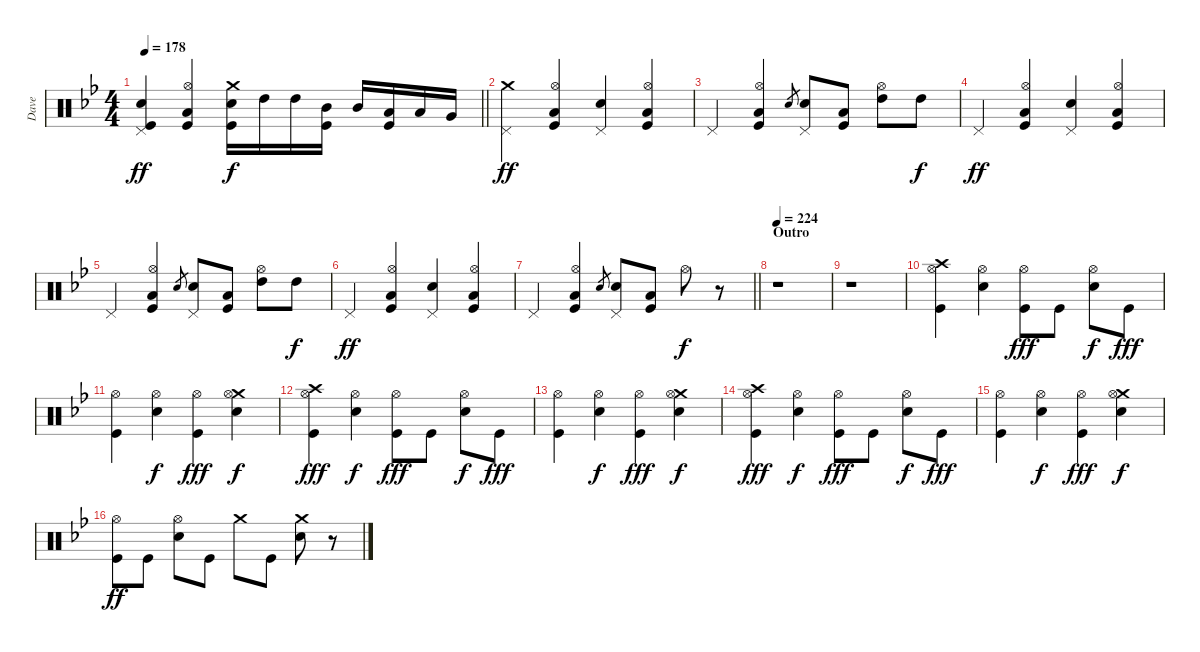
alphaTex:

\track ("Dave" "Dave") {instrument percussion}
\staff {score}
\articulation defaults
\ts (4 4)
\tempo 178
\clef neutral
\barLineRight lightlight
\ks gminor
("Pedal Hi-Hat (hit)" "Snare (hit) 2" "Kick (hit)").4{dy ff} ("Hi-Hat (open)" "Low Floor Tom (hit)" "Kick (hit)").4 ("Crash medium (hit)" "Snare (hit) 2" "Kick (hit)").16{dy f} "High Tom (hit)".16 "High Tom (hit)".16 ("Mid Tom (hit)" "Kick (hit)").16 "Mid Tom (hit)".16 ("Low Tom (hit)" "Kick (hit)").16 "Low Tom (hit)".16 "Very Low Tom (hit)".16 |
("Crash medium (hit)" "Pedal Hi-Hat (hit)").4{dy ff} ("Hi-Hat (open)" "Low Floor Tom (hit)" "Kick (hit)").4 ("Pedal Hi-Hat (hit)" "Snare (hit) 2").4 ("Hi-Hat (open)" "Low Floor Tom (hit)" "Kick (hit)").4 |
"Pedal Hi-Hat (hit)".4 ("Hi-Hat (open)" "Low Floor Tom (hit)" "Kick (hit)").4 "Snare (hit) 2".8{gr} ("Pedal Hi-Hat (hit)" "Snare (hit) 2").8 ("Low Floor Tom (hit)" "Kick (hit)").8 ("High Tom (hit)" "Hi-Hat (open)").8 "High Tom (hit)".8{dy f} |
"Pedal Hi-Hat (hit)".4{dy ff} ("Hi-Hat (open)" "Low Floor Tom (hit)" "Kick (hit)").4 ("Pedal Hi-Hat (hit)" "Snare (hit) 2").4 ("Hi-Hat (open)" "Low Floor Tom (hit)" "Kick (hit)").4 |
"Pedal Hi-Hat (hit)".4 ("Hi-Hat (open)" "Low Floor Tom (hit)" "Kick (hit)").4 "Snare (hit) 2".8{gr} ("Pedal Hi-Hat (hit)" "Snare (hit) 2").8 ("Low Floor Tom (hit)" "Kick (hit)").8 ("High Tom (hit)" "Hi-Hat (open)").8 "High Tom (hit)".8{dy f} |
"Pedal Hi-Hat (hit)".4{dy ff} ("Hi-Hat (open)" "Low Floor Tom (hit)" "Kick (hit)").4 ("Pedal Hi-Hat (hit)" "Snare (hit) 2").4 ("Hi-Hat (open)" "Low Floor Tom (hit)" "Kick (hit)").4 |
\barLineRight lightlight "Pedal Hi-Hat (hit)".4
("Hi-Hat (open)" "Low Floor Tom (hit)" "Kick (hit)").4 "Snare (hit) 2".8{gr} ("Pedal Hi-Hat (hit)" "Snare (hit) 2").8 ("Low Floor Tom (hit)" "Kick (hit)").8 "Hi-Hat (open)".8{dy f} r.8 |
\section ("" "Outro")
\tempo 224
r.1 |
r.1 |
("Crash high (hit)" "Hi-Hat (open)" "Kick (hit)").4 ("Hi-Hat (open)" "Snare (hit) 2").4 ("Hi-Hat (open)" "Kick (hit)").8{dy fff} "Kick (hit)".8 ("Hi-Hat (open)" "Snare (hit) 2").8{dy f} "Kick (hit)".8{dy fff} |
("Hi-Hat (open)" "Kick (hit)").4 ("Hi-Hat (open)" "Snare (hit) 2").4{dy f} ("Hi-Hat (open)" "Kick (hit)").4{dy fff} ("Crash medium (hit)" "Hi-Hat (open)" "Snare (hit) 2").4{dy f} |
("Crash high (hit)" "Hi-Hat (open)" "Kick (hit)").4{dy fff} ("Hi-Hat (open)" "Snare (hit) 2").4{dy f} ("Hi-Hat (open)" "Kick (hit)").8{dy fff} "Kick (hit)".8 ("Hi-Hat (open)" "Snare (hit) 2").8{dy f} "Kick (hit)".8{dy fff} |
("Hi-Hat (open)" "Kick (hit)").4 ("Hi-Hat (open)" "Snare (hit) 2").4{dy f} ("Hi-Hat (open)" "Kick (hit)").4{dy fff} ("Crash medium (hit)" "Hi-Hat (open)" "Snare (hit) 2").4{dy f} |
("Crash high (hit)" "Hi-Hat (open)" "Kick (hit)").4{dy fff} ("Hi-Hat (open)" "Snare (hit) 2").4{dy f} ("Hi-Hat (open)" "Kick (hit)").8{dy fff} "Kick (hit)".8 ("Hi-Hat (open)" "Snare (hit) 2").8{dy f} "Kick (hit)".8{dy fff} |
("Hi-Hat (open)" "Kick (hit)").4 ("Hi-Hat (open)" "Snare (hit) 2").4{dy f} ("Hi-Hat (open)" "Kick (hit)").4{dy fff} ("Crash medium (hit)" "Hi-Hat (open)" "Snare (hit) 2").4{dy f} |
("Hi-Hat (open)" "Kick (hit)").8{dy ff} "Kick (hit)".8 ("Hi-Hat (open)" "Snare (hit) 2").8 "Kick (hit)".8 "Crash medium (hit)".8 "Kick (hit)".8 ("Crash medium (hit)" "Snare (hit) 2").8 r.8
